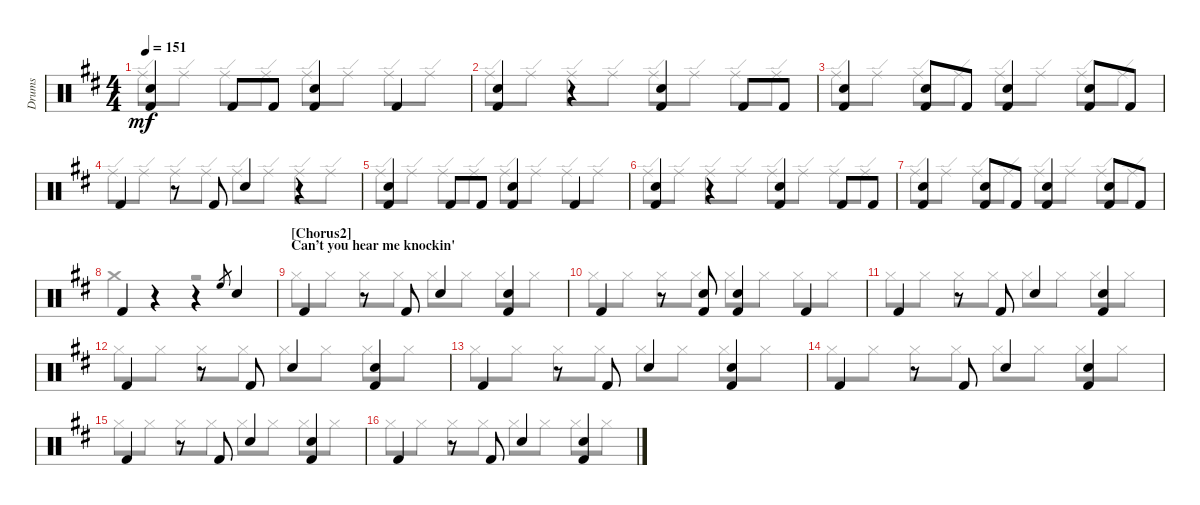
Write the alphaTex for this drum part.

\bracketExtendMode groupsimilarinstruments
\track ("Drumkit" "Drums") {instrument percussion}
\staff {score}
\articulation defaults
\voice
\ts (4 4)
\tempo 151
\clef neutral
\ks d
("Kick (hit) 2"{acc forcenatural} "Snare (hit) 2"{acc forcenatural}).4{dy mf} "Kick (hit) 2"{acc forcenatural}.8 "Kick (hit) 2"{acc forcenatural}.8 ("Kick (hit) 2"{acc forcenatural} "Snare (hit) 2"{acc forcenatural}).4 "Kick (hit) 2"{acc forcenatural}.4 |
("Kick (hit) 2"{acc forcenatural} "Snare (hit) 2"{acc forcenatural}).4 r.4 ("Kick (hit) 2"{acc forcenatural} "Snare (hit) 2"{acc forcenatural}).4 "Kick (hit) 2"{acc forcenatural}.8 "Kick (hit) 2"{acc forcenatural}.8 |
("Kick (hit) 2"{acc forcenatural} "Snare (hit) 2"{acc forcenatural}).4 ("Kick (hit) 2"{acc forcenatural} "Snare (hit) 2"{acc forcenatural}).8 "Kick (hit) 2"{acc forcenatural}.8 ("Kick (hit) 2"{acc forcenatural} "Snare (hit) 2"{acc forcenatural}).4 ("Kick (hit) 2"{acc forcenatural} "Snare (hit) 2"{acc forcenatural}).8 "Kick (hit) 2"{acc forcenatural}.8 |
"Kick (hit) 2"{acc forcenatural}.4 r.8 "Kick (hit) 2"{acc forcenatural}.8 "Snare (hit) 2"{acc forcenatural}.4 r.4 |
("Kick (hit) 2"{acc forcenatural} "Snare (hit) 2"{acc forcenatural}).4 "Kick (hit) 2"{acc forcenatural}.8 "Kick (hit) 2"{acc forcenatural}.8 ("Kick (hit) 2"{acc forcenatural} "Snare (hit) 2"{acc forcenatural}).4 "Kick (hit) 2"{acc forcenatural}.4 |
("Kick (hit) 2"{acc forcenatural} "Snare (hit) 2"{acc forcenatural}).4 r.4 ("Kick (hit) 2"{acc forcenatural} "Snare (hit) 2"{acc forcenatural}).4 "Kick (hit) 2"{acc forcenatural}.8 "Kick (hit) 2"{acc forcenatural}.8 |
("Kick (hit) 2"{acc forcenatural} "Snare (hit) 2"{acc forcenatural}).4 ("Kick (hit) 2"{acc forcenatural} "Snare (hit) 2"{acc forcenatural}).8 "Kick (hit) 2"{acc forcenatural}.8 ("Kick (hit) 2"{acc forcenatural} "Snare (hit) 2"{acc forcenatural}).4 ("Kick (hit) 2"{acc forcenatural} "Snare (hit) 2"{acc forcenatural}).8 "Kick (hit) 2"{acc forcenatural}.8 |
"Kick (hit) 2"{acc forcenatural}.4 r.4 r.4 "High Floor Tom (hit)"{acc forcenatural}.8{gr} "Snare (hit) 2"{acc forcenatural}.4 |
\section ("" "[Chorus2]\nCan’t you hear me knockin'\n")
"Kick (hit) 2"{acc forcenatural}.4 r.8 "Kick (hit) 2"{acc forcenatural}.8 "Snare (hit) 2"{acc forcenatural}.4 ("Kick (hit) 2"{acc forcenatural} "Snare (hit) 2"{acc forcenatural}).4 |
"Kick (hit) 2"{acc forcenatural}.4 r.8 ("Kick (hit) 2"{acc forcenatural} "Snare (hit) 2"{acc forcenatural}).8 ("Kick (hit) 2"{acc forcenatural} "Snare (hit) 2"{acc forcenatural}).4 "Kick (hit) 2"{acc forcenatural}.4 |
"Kick (hit) 2"{acc forcenatural}.4 r.8 "Kick (hit) 2"{acc forcenatural}.8 "Snare (hit) 2"{acc forcenatural}.4 ("Kick (hit) 2"{acc forcenatural} "Snare (hit) 2"{acc forcenatural}).4 |
"Kick (hit) 2"{acc forcenatural}.4 r.8 "Kick (hit) 2"{acc forcenatural}.8 "Snare (hit) 2"{acc forcenatural}.4 ("Kick (hit) 2"{acc forcenatural} "Snare (hit) 2"{acc forcenatural}).4 |
"Kick (hit) 2"{acc forcenatural}.4 r.8 "Kick (hit) 2"{acc forcenatural}.8 "Snare (hit) 2"{acc forcenatural}.4 ("Kick (hit) 2"{acc forcenatural} "Snare (hit) 2"{acc forcenatural}).4 |
"Kick (hit) 2"{acc forcenatural}.4 r.8 "Kick (hit) 2"{acc forcenatural}.8 "Snare (hit) 2"{acc forcenatural}.4 ("Kick (hit) 2"{acc forcenatural} "Snare (hit) 2"{acc forcenatural}).4 |
"Kick (hit) 2"{acc forcenatural}.4 r.8 "Kick (hit) 2"{acc forcenatural}.8 "Snare (hit) 2"{acc forcenatural}.4 ("Kick (hit) 2"{acc forcenatural} "Snare (hit) 2"{acc forcenatural}).4 |
"Kick (hit) 2"{acc forcenatural}.4 r.8 "Kick (hit) 2"{acc forcenatural}.8 "Snare (hit) 2"{acc forcenatural}.4 ("Kick (hit) 2"{acc forcenatural} "Snare (hit) 2"{acc forcenatural}).4
\voice
\clef neutral
\ottava regular
\simile none
\ks d "Ride (edge)"{acc forcenatural}.8{dy mf} "Ride (edge)"{acc forcenatural}.8 "Ride (edge)"{acc forcenatural}.8 "Ride (edge)"{acc forcenatural}.8 "Ride (edge)"{acc forcenatural}.8 "Ride (edge)"{acc forcenatural}.8 "Ride (edge)"{acc forcenatural}.8 "Ride (edge)"{acc forcenatural}.8
|
"Ride (edge)"{acc forcenatural}.8 "Ride (edge)"{acc forcenatural}.8 "Ride (edge)"{acc forcenatural}.8 "Ride (edge)"{acc forcenatural}.8 "Ride (edge)"{acc forcenatural}.8 "Ride (edge)"{acc forcenatural}.8 "Ride (edge)"{acc forcenatural}.8 "Ride (edge)"{acc forcenatural}.8 |
"Ride (edge)"{acc forcenatural}.8 "Ride (edge)"{acc forcenatural}.8 "Ride (edge)"{acc forcenatural}.8 "Ride (edge)"{acc forcenatural}.8 "Ride (edge)"{acc forcenatural}.8 "Ride (edge)"{acc forcenatural}.8 "Ride (edge)"{acc forcenatural}.8 "Ride (edge)"{acc forcenatural}.8 |
"Ride (edge)"{acc forcenatural}.8 "Ride (edge)"{acc forcenatural}.8 "Ride (edge)"{acc forcenatural}.8 "Ride (edge)"{acc forcenatural}.8 "Ride (edge)"{acc forcenatural}.8 "Ride (edge)"{acc forcenatural}.8 "Ride (edge)"{acc forcenatural}.8 "Ride (edge)"{acc forcenatural}.8 |
"Ride (edge)"{acc forcenatural}.8 "Ride (edge)"{acc forcenatural}.8 "Ride (edge)"{acc forcenatural}.8 "Ride (edge)"{acc forcenatural}.8 "Ride (edge)"{acc forcenatural}.8 "Ride (edge)"{acc forcenatural}.8 "Ride (edge)"{acc forcenatural}.8 "Ride (edge)"{acc forcenatural}.8 |
"Ride (edge)"{acc forcenatural}.8 "Ride (edge)"{acc forcenatural}.8 "Ride (edge)"{acc forcenatural}.8 "Ride (edge)"{acc forcenatural}.8 "Ride (edge)"{acc forcenatural}.8 "Ride (edge)"{acc forcenatural}.8 "Ride (edge)"{acc forcenatural}.8 "Ride (edge)"{acc forcenatural}.8 |
"Ride (edge)"{acc forcenatural}.8 "Ride (edge)"{acc forcenatural}.8 "Ride (edge)"{acc forcenatural}.8 "Ride (edge)"{acc forcenatural}.8 "Ride (edge)"{acc forcenatural}.8 "Ride (edge)"{acc forcenatural}.8 "Ride (edge)"{acc forcenatural}.8 "Ride (edge)"{acc forcenatural}.8 |
"Crash medium (hit)"{acc forcenatural}.4 r.4 r.2 |
"Hi-Hat (closed)"{acc forcenatural}.8 "Hi-Hat (closed)"{acc forcenatural}.8 "Hi-Hat (closed)"{acc forcenatural}.8 "Hi-Hat (closed)"{acc forcenatural}.8 "Hi-Hat (closed)"{acc forcenatural}.8 "Hi-Hat (closed)"{acc forcenatural}.8 "Hi-Hat (closed)"{acc forcenatural}.8 "Hi-Hat (closed)"{acc forcenatural}.8 |
"Hi-Hat (closed)"{acc forcenatural}.8 "Hi-Hat (closed)"{acc forcenatural}.8 "Hi-Hat (closed)"{acc forcenatural}.8 "Hi-Hat (closed)"{acc forcenatural}.8 "Hi-Hat (closed)"{acc forcenatural}.8 "Hi-Hat (closed)"{acc forcenatural}.8 "Hi-Hat (closed)"{acc forcenatural}.8 "Hi-Hat (closed)"{acc forcenatural}.8 |
"Hi-Hat (closed)"{acc forcenatural}.8 "Hi-Hat (closed)"{acc forcenatural}.8 "Hi-Hat (closed)"{acc forcenatural}.8 "Hi-Hat (closed)"{acc forcenatural}.8 "Hi-Hat (closed)"{acc forcenatural}.8 "Hi-Hat (closed)"{acc forcenatural}.8 "Hi-Hat (closed)"{acc forcenatural}.8 "Hi-Hat (closed)"{acc forcenatural}.8 |
"Hi-Hat (closed)"{acc forcenatural}.8 "Hi-Hat (closed)"{acc forcenatural}.8 "Hi-Hat (closed)"{acc forcenatural}.8 "Hi-Hat (closed)"{acc forcenatural}.8 "Hi-Hat (closed)"{acc forcenatural}.8 "Hi-Hat (closed)"{acc forcenatural}.8 "Hi-Hat (closed)"{acc forcenatural}.8 "Hi-Hat (closed)"{acc forcenatural}.8 |
"Hi-Hat (closed)"{acc forcenatural}.8 "Hi-Hat (closed)"{acc forcenatural}.8 "Hi-Hat (closed)"{acc forcenatural}.8 "Hi-Hat (closed)"{acc forcenatural}.8 "Hi-Hat (closed)"{acc forcenatural}.8 "Hi-Hat (closed)"{acc forcenatural}.8 "Hi-Hat (closed)"{acc forcenatural}.8 "Hi-Hat (closed)"{acc forcenatural}.8 |
"Hi-Hat (closed)"{acc forcenatural}.8 "Hi-Hat (closed)"{acc forcenatural}.8 "Hi-Hat (closed)"{acc forcenatural}.8 "Hi-Hat (closed)"{acc forcenatural}.8 "Hi-Hat (closed)"{acc forcenatural}.8 "Hi-Hat (closed)"{acc forcenatural}.8 "Hi-Hat (closed)"{acc forcenatural}.8 "Hi-Hat (closed)"{acc forcenatural}.8 |
"Hi-Hat (closed)"{acc forcenatural}.8 "Hi-Hat (closed)"{acc forcenatural}.8 "Hi-Hat (closed)"{acc forcenatural}.8 "Hi-Hat (closed)"{acc forcenatural}.8 "Hi-Hat (closed)"{acc forcenatural}.8 "Hi-Hat (closed)"{acc forcenatural}.8 "Hi-Hat (closed)"{acc forcenatural}.8 "Hi-Hat (closed)"{acc forcenatural}.8 |
"Hi-Hat (closed)"{acc forcenatural}.8 "Hi-Hat (closed)"{acc forcenatural}.8 "Hi-Hat (closed)"{acc forcenatural}.8 "Hi-Hat (closed)"{acc forcenatural}.8 "Hi-Hat (closed)"{acc forcenatural}.8 "Hi-Hat (closed)"{acc forcenatural}.8 "Hi-Hat (closed)"{acc forcenatural}.8 "Hi-Hat (closed)"{acc forcenatural}.8
